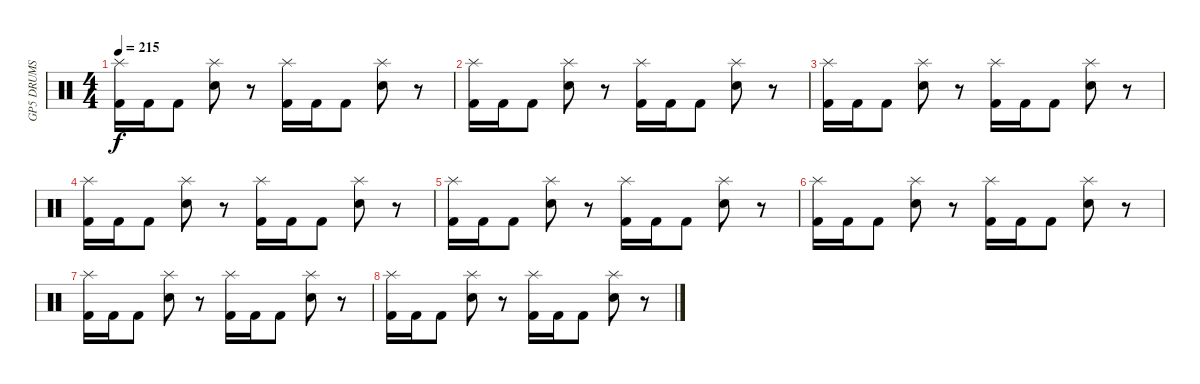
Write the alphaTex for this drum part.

\track ("GP5 DRUMS" "GP5 DRUMS") {instrument percussion}
\staff {score}
\articulation defaults
\ts (4 4)
\tempo 215
\clef neutral
\ks c
("Splash (hit)" "Kick (hit) 2").16{dy f} "Kick (hit) 2".16 "Kick (hit) 2".8 ("Splash (hit)" "Electric Snare (hit)").8 r.8 ("Splash (hit)" "Kick (hit) 2").16 "Kick (hit) 2".16 "Kick (hit) 2".8 ("Splash (hit)" "Electric Snare (hit)").8 r.8 |
("Splash (hit)" "Kick (hit) 2").16 "Kick (hit) 2".16 "Kick (hit) 2".8 ("Splash (hit)" "Electric Snare (hit)").8 r.8 ("Splash (hit)" "Kick (hit) 2").16 "Kick (hit) 2".16 "Kick (hit) 2".8 ("Splash (hit)" "Electric Snare (hit)").8 r.8 |
("Splash (hit)" "Kick (hit) 2").16 "Kick (hit) 2".16 "Kick (hit) 2".8 ("Splash (hit)" "Electric Snare (hit)").8 r.8 ("Splash (hit)" "Kick (hit) 2").16 "Kick (hit) 2".16 "Kick (hit) 2".8 ("Splash (hit)" "Electric Snare (hit)").8 r.8 |
("Splash (hit)" "Kick (hit) 2").16 "Kick (hit) 2".16 "Kick (hit) 2".8 ("Splash (hit)" "Electric Snare (hit)").8 r.8 ("Splash (hit)" "Kick (hit) 2").16 "Kick (hit) 2".16 "Kick (hit) 2".8 ("Splash (hit)" "Electric Snare (hit)").8 r.8 |
("Splash (hit)" "Kick (hit) 2").16 "Kick (hit) 2".16 "Kick (hit) 2".8 ("Splash (hit)" "Electric Snare (hit)").8 r.8 ("Splash (hit)" "Kick (hit) 2").16 "Kick (hit) 2".16 "Kick (hit) 2".8 ("Splash (hit)" "Electric Snare (hit)").8 r.8 |
("Splash (hit)" "Kick (hit) 2").16 "Kick (hit) 2".16 "Kick (hit) 2".8 ("Splash (hit)" "Electric Snare (hit)").8 r.8 ("Splash (hit)" "Kick (hit) 2").16 "Kick (hit) 2".16 "Kick (hit) 2".8 ("Splash (hit)" "Electric Snare (hit)").8 r.8 |
("Splash (hit)" "Kick (hit) 2").16 "Kick (hit) 2".16 "Kick (hit) 2".8 ("Splash (hit)" "Electric Snare (hit)").8 r.8 ("Splash (hit)" "Kick (hit) 2").16 "Kick (hit) 2".16 "Kick (hit) 2".8 ("Splash (hit)" "Electric Snare (hit)").8 r.8 |
("Splash (hit)" "Kick (hit) 2").16 "Kick (hit) 2".16 "Kick (hit) 2".8 ("Splash (hit)" "Electric Snare (hit)").8 r.8 ("Splash (hit)" "Kick (hit) 2").16 "Kick (hit) 2".16 "Kick (hit) 2".8 ("Splash (hit)" "Electric Snare (hit)").8 r.8
